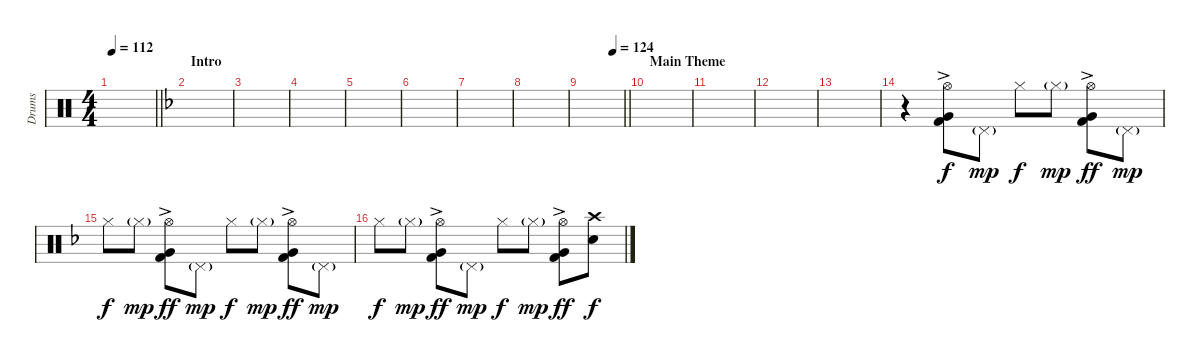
\track ("Drums" "Drums") {instrument percussion}
\staff {score}
\articulation defaults
\ts (4 4)
\tempo 112
\clef neutral
\barLineRight lightlight
\ks c
|
\section ("" "Intro")
\ks f
|
|
|
|
|
|
|
\tempo (124 0.75)
\barLineRight lightlight
|
\section ("" "Main Theme")
|
|
|
|
r.4 ("Hi-Hat (open)" "Very Low Tom (hit)" "Kick (hit) 2"{ac}).8 "Pedal Hi-Hat (hit)"{g}.8{dy mp} "Hi-Hat (closed)".8{dy f} "Hi-Hat (closed)"{g}.8{dy mp} ("Hi-Hat (open)" "Very Low Tom (hit)" "Kick (hit) 2"{ac}).8{dy ff} "Pedal Hi-Hat (hit)"{g}.8{dy mp} |
"Hi-Hat (closed)".8{dy f} "Hi-Hat (closed)"{g}.8{dy mp} ("Hi-Hat (open)" "Very Low Tom (hit)" "Kick (hit) 2"{ac}).8{dy ff} "Pedal Hi-Hat (hit)"{g}.8{dy mp} "Hi-Hat (closed)".8{dy f} "Hi-Hat (closed)"{g}.8{dy mp} ("Hi-Hat (open)" "Very Low Tom (hit)" "Kick (hit) 2"{ac}).8{dy ff} "Pedal Hi-Hat (hit)"{g}.8{dy mp} |
"Hi-Hat (closed)".8{dy f} "Hi-Hat (closed)"{g}.8{dy mp} ("Hi-Hat (open)" "Very Low Tom (hit)" "Kick (hit) 2"{ac}).8{dy ff} "Pedal Hi-Hat (hit)"{g}.8{dy mp} "Hi-Hat (closed)".8{dy f} "Hi-Hat (closed)"{g}.8{dy mp} ("Hi-Hat (open)" "Very Low Tom (hit)" "Kick (hit) 2"{ac}).8{dy ff} ("Crash high (hit)" "Snare (hit) 2").8{dy f}
